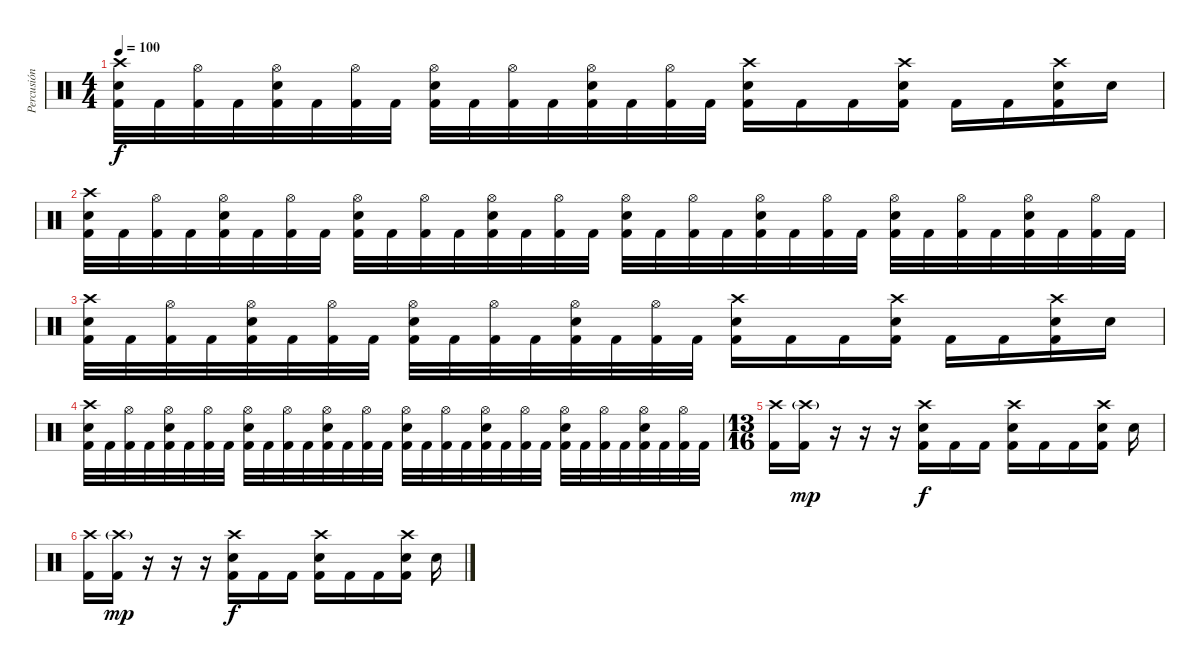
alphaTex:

\track ("Percusión" "Percusión") {instrument percussion}
\staff {score}
\articulation defaults
\ts (4 4)
\tempo 100
\clef neutral
\ks c
("Crash high (hit)" "Electric Snare (hit)" "Kick (hit) 2").32{dy f} "Kick (hit) 2".32 ("Hi-Hat (open)" "Kick (hit) 2").32 "Kick (hit) 2".32 ("Hi-Hat (open)" "Electric Snare (hit)" "Kick (hit) 2").32 "Kick (hit) 2".32 ("Hi-Hat (open)" "Kick (hit) 2").32 "Kick (hit) 2".32 ("Hi-Hat (open)" "Electric Snare (hit)" "Kick (hit) 2").32 "Kick (hit) 2".32 ("Hi-Hat (open)" "Kick (hit) 2").32 "Kick (hit) 2".32 ("Hi-Hat (open)" "Electric Snare (hit)" "Kick (hit) 2").32 "Kick (hit) 2".32 ("Hi-Hat (open)" "Kick (hit) 2").32 "Kick (hit) 2".32 ("Crash high (hit)" "Electric Snare (hit)" "Kick (hit) 2").16 "Kick (hit) 2".16 "Kick (hit) 2".16 ("Crash high (hit)" "Electric Snare (hit)" "Kick (hit) 2").16 "Kick (hit) 2".16 "Kick (hit) 2".16 ("Crash high (hit)" "Electric Snare (hit)" "Kick (hit) 2").16 "Electric Snare (hit)".16 |
("Crash high (hit)" "Electric Snare (hit)" "Kick (hit) 2").32 "Kick (hit) 2".32 ("Hi-Hat (open)" "Kick (hit) 2").32 "Kick (hit) 2".32 ("Hi-Hat (open)" "Electric Snare (hit)" "Kick (hit) 2").32 "Kick (hit) 2".32 ("Hi-Hat (open)" "Kick (hit) 2").32 "Kick (hit) 2".32 ("Hi-Hat (open)" "Electric Snare (hit)" "Kick (hit) 2").32 "Kick (hit) 2".32 ("Hi-Hat (open)" "Kick (hit) 2").32 "Kick (hit) 2".32 ("Hi-Hat (open)" "Electric Snare (hit)" "Kick (hit) 2").32 "Kick (hit) 2".32 ("Hi-Hat (open)" "Kick (hit) 2").32 "Kick (hit) 2".32 ("Hi-Hat (open)" "Electric Snare (hit)" "Kick (hit) 2").32 "Kick (hit) 2".32 ("Hi-Hat (open)" "Kick (hit) 2").32 "Kick (hit) 2".32 ("Hi-Hat (open)" "Electric Snare (hit)" "Kick (hit) 2").32 "Kick (hit) 2".32 ("Hi-Hat (open)" "Kick (hit) 2").32 "Kick (hit) 2".32 ("Hi-Hat (open)" "Electric Snare (hit)" "Kick (hit) 2").32 "Kick (hit) 2".32 ("Hi-Hat (open)" "Kick (hit) 2").32 "Kick (hit) 2".32 ("Hi-Hat (open)" "Electric Snare (hit)" "Kick (hit) 2").32 "Kick (hit) 2".32 ("Hi-Hat (open)" "Kick (hit) 2").32 "Kick (hit) 2".32 |
("Crash high (hit)" "Electric Snare (hit)" "Kick (hit) 2").32 "Kick (hit) 2".32 ("Hi-Hat (open)" "Kick (hit) 2").32 "Kick (hit) 2".32 ("Hi-Hat (open)" "Electric Snare (hit)" "Kick (hit) 2").32 "Kick (hit) 2".32 ("Hi-Hat (open)" "Kick (hit) 2").32 "Kick (hit) 2".32 ("Hi-Hat (open)" "Electric Snare (hit)" "Kick (hit) 2").32 "Kick (hit) 2".32 ("Hi-Hat (open)" "Kick (hit) 2").32 "Kick (hit) 2".32 ("Hi-Hat (open)" "Electric Snare (hit)" "Kick (hit) 2").32 "Kick (hit) 2".32 ("Hi-Hat (open)" "Kick (hit) 2").32 "Kick (hit) 2".32 ("Crash high (hit)" "Electric Snare (hit)" "Kick (hit) 2").16 "Kick (hit) 2".16 "Kick (hit) 2".16 ("Crash high (hit)" "Electric Snare (hit)" "Kick (hit) 2").16 "Kick (hit) 2".16 "Kick (hit) 2".16 ("Crash high (hit)" "Electric Snare (hit)" "Kick (hit) 2").16 "Electric Snare (hit)".16 |
("Crash high (hit)" "Electric Snare (hit)" "Kick (hit) 2").32 "Kick (hit) 2".32 ("Hi-Hat (open)" "Kick (hit) 2").32 "Kick (hit) 2".32 ("Hi-Hat (open)" "Electric Snare (hit)" "Kick (hit) 2").32 "Kick (hit) 2".32 ("Hi-Hat (open)" "Kick (hit) 2").32 "Kick (hit) 2".32 ("Hi-Hat (open)" "Electric Snare (hit)" "Kick (hit) 2").32 "Kick (hit) 2".32 ("Hi-Hat (open)" "Kick (hit) 2").32 "Kick (hit) 2".32 ("Hi-Hat (open)" "Electric Snare (hit)" "Kick (hit) 2").32 "Kick (hit) 2".32 ("Hi-Hat (open)" "Kick (hit) 2").32 "Kick (hit) 2".32 ("Hi-Hat (open)" "Electric Snare (hit)" "Kick (hit) 2").32 "Kick (hit) 2".32 ("Hi-Hat (open)" "Kick (hit) 2").32 "Kick (hit) 2".32 ("Hi-Hat (open)" "Electric Snare (hit)" "Kick (hit) 2").32 "Kick (hit) 2".32 ("Hi-Hat (open)" "Kick (hit) 2").32 "Kick (hit) 2".32 ("Hi-Hat (open)" "Electric Snare (hit)" "Kick (hit) 2").32 "Kick (hit) 2".32 ("Hi-Hat (open)" "Kick (hit) 2").32 "Kick (hit) 2".32 ("Hi-Hat (open)" "Electric Snare (hit)" "Kick (hit) 2").32 "Kick (hit) 2".32 ("Hi-Hat (open)" "Kick (hit) 2").32 "Kick (hit) 2".32 |
\ts (13 16)
("Crash high (hit)" "Kick (hit) 2").16 ("Crash high (hit)"{g} "Kick (hit) 2").16{dy mp} r.16 r.16 r.16 ("Crash high (hit)" "Electric Snare (hit)" "Kick (hit) 2").16{dy f} "Kick (hit) 2".16 "Kick (hit) 2".16 ("Crash high (hit)" "Electric Snare (hit)" "Kick (hit) 2").16 "Kick (hit) 2".16 "Kick (hit) 2".16 ("Crash high (hit)" "Electric Snare (hit)" "Kick (hit) 2").16 "Electric Snare (hit)".16 |
("Crash high (hit)" "Kick (hit) 2").16 ("Crash high (hit)"{g} "Kick (hit) 2").16{dy mp} r.16 r.16 r.16 ("Crash high (hit)" "Electric Snare (hit)" "Kick (hit) 2").16{dy f} "Kick (hit) 2".16 "Kick (hit) 2".16 ("Crash high (hit)" "Electric Snare (hit)" "Kick (hit) 2").16 "Kick (hit) 2".16 "Kick (hit) 2".16 ("Crash high (hit)" "Electric Snare (hit)" "Kick (hit) 2").16 "Electric Snare (hit)".16
